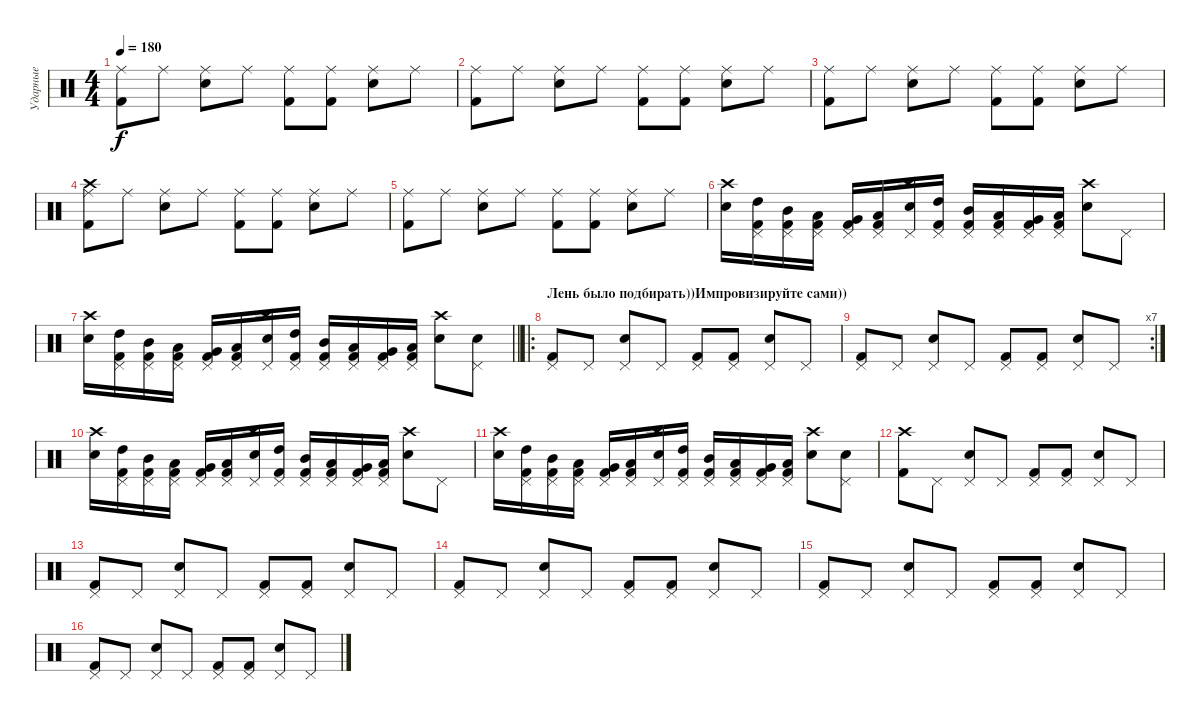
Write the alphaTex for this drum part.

\track ("Ударные" "Ударные") {instrument percussion}
\staff {score}
\articulation defaults
\ts (4 4)
\tempo 180
\clef neutral
\ks c
("Kick (hit) 2" "Ride (middle)").8{dy f} "Ride (middle)".8 ("Electric Snare (hit)" "Ride (middle)").8 "Ride (middle)".8 ("Ride (middle)" "Kick (hit) 2").8 ("Ride (middle)" "Kick (hit) 2").8 ("Electric Snare (hit)" "Ride (middle)").8 "Ride (middle)".8 |
("Kick (hit) 2" "Ride (middle)").8 "Ride (middle)".8 ("Electric Snare (hit)" "Ride (middle)").8 "Ride (middle)".8 ("Ride (middle)" "Kick (hit) 2").8 ("Ride (middle)" "Kick (hit) 2").8 ("Electric Snare (hit)" "Ride (middle)").8 "Ride (middle)".8 |
("Kick (hit) 2" "Ride (middle)").8 "Ride (middle)".8 ("Electric Snare (hit)" "Ride (middle)").8 "Ride (middle)".8 ("Ride (middle)" "Kick (hit) 2").8 ("Ride (middle)" "Kick (hit) 2").8 ("Electric Snare (hit)" "Ride (middle)").8 "Ride (middle)".8 |
("Kick (hit) 2" "Ride (middle)" "Crash high (hit)").8 "Ride (middle)".8 ("Electric Snare (hit)" "Ride (middle)").8 "Ride (middle)".8 ("Ride (middle)" "Kick (hit) 2").8 ("Ride (middle)" "Kick (hit) 2").8 ("Electric Snare (hit)" "Ride (middle)").8 "Ride (middle)".8 |
("Kick (hit) 2" "Ride (middle)").8 "Ride (middle)".8 ("Electric Snare (hit)" "Ride (middle)").8 "Ride (middle)".8 ("Ride (middle)" "Kick (hit) 2").8 ("Ride (middle)" "Kick (hit) 2").8 ("Electric Snare (hit)" "Ride (middle)").8 "Ride (middle)".8 |
("Crash high (hit)" "Electric Snare (hit)").16 ("Kick (hit) 2" "Pedal Hi-Hat (hit)" "High Tom (hit)").16 ("Kick (hit) 2" "Pedal Hi-Hat (hit)" "Mid Tom (hit)").16 ("Pedal Hi-Hat (hit)" "Kick (hit) 2" "Low Tom (hit)").16 ("Pedal Hi-Hat (hit)" "Kick (hit) 2" "Very Low Tom (hit)").16 ("Pedal Hi-Hat (hit)" "Kick (hit) 2" "Low Floor Tom (hit)").16 ("Electric Snare (hit)" "Pedal Hi-Hat (hit)" "Crash high (hit)").16 ("Pedal Hi-Hat (hit)" "Kick (hit) 2" "High Tom (hit)").16 ("Pedal Hi-Hat (hit)" "Kick (hit) 2" "Mid Tom (hit)").16 ("Pedal Hi-Hat (hit)" "Kick (hit) 2" "Low Tom (hit)").16 ("Pedal Hi-Hat (hit)" "Kick (hit) 2" "Very Low Tom (hit)").16 ("Pedal Hi-Hat (hit)" "Kick (hit) 2" "Low Floor Tom (hit)").16 ("Electric Snare (hit)" "Crash high (hit)").8 "Pedal Hi-Hat (hit)".8 |
\barLineRight lightlight
("Crash high (hit)" "Electric Snare (hit)").16 ("Kick (hit) 2" "Pedal Hi-Hat (hit)" "High Tom (hit)").16 ("Kick (hit) 2" "Pedal Hi-Hat (hit)" "Mid Tom (hit)").16 ("Pedal Hi-Hat (hit)" "Kick (hit) 2" "Low Tom (hit)").16 ("Pedal Hi-Hat (hit)" "Kick (hit) 2" "Very Low Tom (hit)").16 ("Pedal Hi-Hat (hit)" "Kick (hit) 2" "Low Floor Tom (hit)").16 ("Electric Snare (hit)" "Pedal Hi-Hat (hit)" "Crash high (hit)").16 ("Pedal Hi-Hat (hit)" "Kick (hit) 2" "High Tom (hit)").16 ("Pedal Hi-Hat (hit)" "Kick (hit) 2" "Mid Tom (hit)").16 ("Pedal Hi-Hat (hit)" "Kick (hit) 2" "Low Tom (hit)").16 ("Pedal Hi-Hat (hit)" "Kick (hit) 2" "Very Low Tom (hit)").16 ("Pedal Hi-Hat (hit)" "Kick (hit) 2" "Low Floor Tom (hit)").16 ("Electric Snare (hit)" "Crash high (hit)").8 ("Pedal Hi-Hat (hit)" "Electric Snare (hit)").8 |
\ro
\section ("" "Лень было подбирать))Импровизируйте сами))")
("Kick (hit) 2" "Pedal Hi-Hat (hit)").8 "Pedal Hi-Hat (hit)".8 ("Electric Snare (hit)" "Pedal Hi-Hat (hit)").8 "Pedal Hi-Hat (hit)".8 ("Pedal Hi-Hat (hit)" "Kick (hit) 2").8 ("Pedal Hi-Hat (hit)" "Kick (hit) 2").8 ("Electric Snare (hit)" "Pedal Hi-Hat (hit)").8 "Pedal Hi-Hat (hit)".8 |
\rc 7
("Kick (hit) 2" "Pedal Hi-Hat (hit)").8 "Pedal Hi-Hat (hit)".8 ("Electric Snare (hit)" "Pedal Hi-Hat (hit)").8 "Pedal Hi-Hat (hit)".8 ("Pedal Hi-Hat (hit)" "Kick (hit) 2").8 ("Pedal Hi-Hat (hit)" "Kick (hit) 2").8 ("Electric Snare (hit)" "Pedal Hi-Hat (hit)").8 "Pedal Hi-Hat (hit)".8 |
("Crash high (hit)" "Electric Snare (hit)").16 ("Kick (hit) 2" "Pedal Hi-Hat (hit)" "High Tom (hit)").16 ("Kick (hit) 2" "Pedal Hi-Hat (hit)" "Mid Tom (hit)").16 ("Pedal Hi-Hat (hit)" "Kick (hit) 2" "Low Tom (hit)").16 ("Pedal Hi-Hat (hit)" "Kick (hit) 2" "Very Low Tom (hit)").16 ("Pedal Hi-Hat (hit)" "Kick (hit) 2" "Low Floor Tom (hit)").16 ("Electric Snare (hit)" "Pedal Hi-Hat (hit)" "Crash high (hit)").16 ("Pedal Hi-Hat (hit)" "Kick (hit) 2" "High Tom (hit)").16 ("Pedal Hi-Hat (hit)" "Kick (hit) 2" "Mid Tom (hit)").16 ("Pedal Hi-Hat (hit)" "Kick (hit) 2" "Low Tom (hit)").16 ("Pedal Hi-Hat (hit)" "Kick (hit) 2" "Very Low Tom (hit)").16 ("Pedal Hi-Hat (hit)" "Kick (hit) 2" "Low Floor Tom (hit)").16 ("Electric Snare (hit)" "Crash high (hit)").8 "Pedal Hi-Hat (hit)".8 |
("Crash high (hit)" "Electric Snare (hit)").16 ("Kick (hit) 2" "Pedal Hi-Hat (hit)" "High Tom (hit)").16 ("Kick (hit) 2" "Pedal Hi-Hat (hit)" "Mid Tom (hit)").16 ("Pedal Hi-Hat (hit)" "Kick (hit) 2" "Low Tom (hit)").16 ("Pedal Hi-Hat (hit)" "Kick (hit) 2" "Very Low Tom (hit)").16 ("Pedal Hi-Hat (hit)" "Kick (hit) 2" "Low Floor Tom (hit)").16 ("Electric Snare (hit)" "Pedal Hi-Hat (hit)" "Crash high (hit)").16 ("Pedal Hi-Hat (hit)" "Kick (hit) 2" "High Tom (hit)").16 ("Pedal Hi-Hat (hit)" "Kick (hit) 2" "Mid Tom (hit)").16 ("Pedal Hi-Hat (hit)" "Kick (hit) 2" "Low Tom (hit)").16 ("Pedal Hi-Hat (hit)" "Kick (hit) 2" "Very Low Tom (hit)").16 ("Pedal Hi-Hat (hit)" "Kick (hit) 2" "Low Floor Tom (hit)").16 ("Electric Snare (hit)" "Crash high (hit)").8 ("Pedal Hi-Hat (hit)" "Electric Snare (hit)").8 |
("Kick (hit) 2" "Crash high (hit)").8 "Pedal Hi-Hat (hit)".8 ("Electric Snare (hit)" "Pedal Hi-Hat (hit)").8 "Pedal Hi-Hat (hit)".8 ("Pedal Hi-Hat (hit)" "Kick (hit) 2").8 ("Pedal Hi-Hat (hit)" "Kick (hit) 2").8 ("Electric Snare (hit)" "Pedal Hi-Hat (hit)").8 "Pedal Hi-Hat (hit)".8 |
("Kick (hit) 2" "Pedal Hi-Hat (hit)").8 "Pedal Hi-Hat (hit)".8 ("Electric Snare (hit)" "Pedal Hi-Hat (hit)").8 "Pedal Hi-Hat (hit)".8 ("Pedal Hi-Hat (hit)" "Kick (hit) 2").8 ("Pedal Hi-Hat (hit)" "Kick (hit) 2").8 ("Electric Snare (hit)" "Pedal Hi-Hat (hit)").8 "Pedal Hi-Hat (hit)".8 |
("Kick (hit) 2" "Pedal Hi-Hat (hit)").8 "Pedal Hi-Hat (hit)".8 ("Electric Snare (hit)" "Pedal Hi-Hat (hit)").8 "Pedal Hi-Hat (hit)".8 ("Pedal Hi-Hat (hit)" "Kick (hit) 2").8 ("Pedal Hi-Hat (hit)" "Kick (hit) 2").8 ("Electric Snare (hit)" "Pedal Hi-Hat (hit)").8 "Pedal Hi-Hat (hit)".8 |
("Kick (hit) 2" "Pedal Hi-Hat (hit)").8 "Pedal Hi-Hat (hit)".8 ("Electric Snare (hit)" "Pedal Hi-Hat (hit)").8 "Pedal Hi-Hat (hit)".8 ("Pedal Hi-Hat (hit)" "Kick (hit) 2").8 ("Pedal Hi-Hat (hit)" "Kick (hit) 2").8 ("Electric Snare (hit)" "Pedal Hi-Hat (hit)").8 "Pedal Hi-Hat (hit)".8 |
("Kick (hit) 2" "Pedal Hi-Hat (hit)").8 "Pedal Hi-Hat (hit)".8 ("Electric Snare (hit)" "Pedal Hi-Hat (hit)").8 "Pedal Hi-Hat (hit)".8 ("Pedal Hi-Hat (hit)" "Kick (hit) 2").8 ("Pedal Hi-Hat (hit)" "Kick (hit) 2").8 ("Electric Snare (hit)" "Pedal Hi-Hat (hit)").8 "Pedal Hi-Hat (hit)".8
